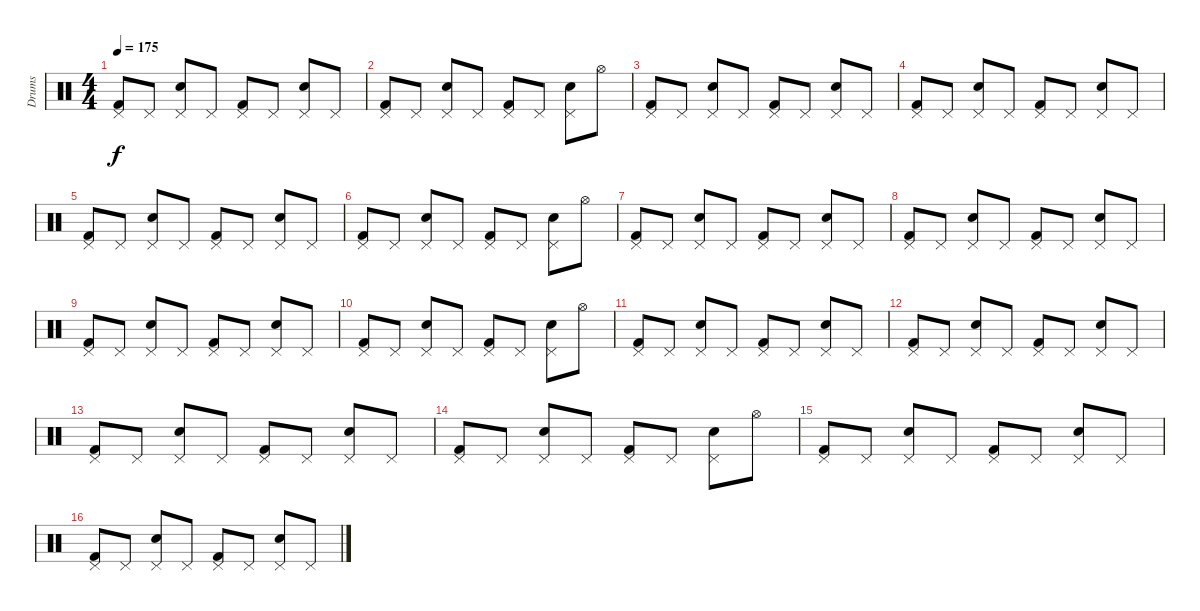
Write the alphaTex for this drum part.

\track ("Drums" "Drums") {instrument percussion}
\staff {score}
\articulation defaults
\ts (4 4)
\tempo 175
\clef neutral
\ks c
("Pedal Hi-Hat (hit)" "Kick (hit) 2").8{dy f} "Pedal Hi-Hat (hit)".8 ("Pedal Hi-Hat (hit)" "Snare (hit) 2").8 "Pedal Hi-Hat (hit)".8 ("Pedal Hi-Hat (hit)" "Kick (hit) 2").8 "Pedal Hi-Hat (hit)".8 ("Pedal Hi-Hat (hit)" "Snare (hit) 2").8 "Pedal Hi-Hat (hit)".8 |
("Pedal Hi-Hat (hit)" "Kick (hit) 2").8 "Pedal Hi-Hat (hit)".8 ("Pedal Hi-Hat (hit)" "Snare (hit) 2").8 "Pedal Hi-Hat (hit)".8 ("Pedal Hi-Hat (hit)" "Kick (hit) 2").8 "Pedal Hi-Hat (hit)".8 ("Pedal Hi-Hat (hit)" "Snare (hit) 2").8 "Hi-Hat (open)".8 |
("Pedal Hi-Hat (hit)" "Kick (hit) 2").8 "Pedal Hi-Hat (hit)".8 ("Pedal Hi-Hat (hit)" "Snare (hit) 2").8 "Pedal Hi-Hat (hit)".8 ("Pedal Hi-Hat (hit)" "Kick (hit) 2").8 "Pedal Hi-Hat (hit)".8 ("Pedal Hi-Hat (hit)" "Snare (hit) 2").8 "Pedal Hi-Hat (hit)".8 |
("Pedal Hi-Hat (hit)" "Kick (hit) 2").8 "Pedal Hi-Hat (hit)".8 ("Pedal Hi-Hat (hit)" "Snare (hit) 2").8 "Pedal Hi-Hat (hit)".8 ("Pedal Hi-Hat (hit)" "Kick (hit) 2").8 "Pedal Hi-Hat (hit)".8 ("Pedal Hi-Hat (hit)" "Snare (hit) 2").8 "Pedal Hi-Hat (hit)".8 |
("Pedal Hi-Hat (hit)" "Kick (hit) 2").8 "Pedal Hi-Hat (hit)".8 ("Pedal Hi-Hat (hit)" "Snare (hit) 2").8 "Pedal Hi-Hat (hit)".8 ("Pedal Hi-Hat (hit)" "Kick (hit) 2").8 "Pedal Hi-Hat (hit)".8 ("Pedal Hi-Hat (hit)" "Snare (hit) 2").8 "Pedal Hi-Hat (hit)".8 |
("Pedal Hi-Hat (hit)" "Kick (hit) 2").8 "Pedal Hi-Hat (hit)".8 ("Pedal Hi-Hat (hit)" "Snare (hit) 2").8 "Pedal Hi-Hat (hit)".8 ("Pedal Hi-Hat (hit)" "Kick (hit) 2").8 "Pedal Hi-Hat (hit)".8 ("Pedal Hi-Hat (hit)" "Snare (hit) 2").8 "Hi-Hat (open)".8 |
("Pedal Hi-Hat (hit)" "Kick (hit) 2").8 "Pedal Hi-Hat (hit)".8 ("Pedal Hi-Hat (hit)" "Snare (hit) 2").8 "Pedal Hi-Hat (hit)".8 ("Pedal Hi-Hat (hit)" "Kick (hit) 2").8 "Pedal Hi-Hat (hit)".8 ("Pedal Hi-Hat (hit)" "Snare (hit) 2").8 "Pedal Hi-Hat (hit)".8 |
("Pedal Hi-Hat (hit)" "Kick (hit) 2").8 "Pedal Hi-Hat (hit)".8 ("Pedal Hi-Hat (hit)" "Snare (hit) 2").8 "Pedal Hi-Hat (hit)".8 ("Pedal Hi-Hat (hit)" "Kick (hit) 2").8 "Pedal Hi-Hat (hit)".8 ("Pedal Hi-Hat (hit)" "Snare (hit) 2").8 "Pedal Hi-Hat (hit)".8 |
("Pedal Hi-Hat (hit)" "Kick (hit) 2").8 "Pedal Hi-Hat (hit)".8 ("Pedal Hi-Hat (hit)" "Snare (hit) 2").8 "Pedal Hi-Hat (hit)".8 ("Pedal Hi-Hat (hit)" "Kick (hit) 2").8 "Pedal Hi-Hat (hit)".8 ("Pedal Hi-Hat (hit)" "Snare (hit) 2").8 "Pedal Hi-Hat (hit)".8 |
("Pedal Hi-Hat (hit)" "Kick (hit) 2").8 "Pedal Hi-Hat (hit)".8 ("Pedal Hi-Hat (hit)" "Snare (hit) 2").8 "Pedal Hi-Hat (hit)".8 ("Pedal Hi-Hat (hit)" "Kick (hit) 2").8 "Pedal Hi-Hat (hit)".8 ("Pedal Hi-Hat (hit)" "Snare (hit) 2").8 "Hi-Hat (open)".8 |
("Pedal Hi-Hat (hit)" "Kick (hit) 2").8 "Pedal Hi-Hat (hit)".8 ("Pedal Hi-Hat (hit)" "Snare (hit) 2").8 "Pedal Hi-Hat (hit)".8 ("Pedal Hi-Hat (hit)" "Kick (hit) 2").8 "Pedal Hi-Hat (hit)".8 ("Pedal Hi-Hat (hit)" "Snare (hit) 2").8 "Pedal Hi-Hat (hit)".8 |
("Pedal Hi-Hat (hit)" "Kick (hit) 2").8 "Pedal Hi-Hat (hit)".8 ("Pedal Hi-Hat (hit)" "Snare (hit) 2").8 "Pedal Hi-Hat (hit)".8 ("Pedal Hi-Hat (hit)" "Kick (hit) 2").8 "Pedal Hi-Hat (hit)".8 ("Pedal Hi-Hat (hit)" "Snare (hit) 2").8 "Pedal Hi-Hat (hit)".8 |
("Pedal Hi-Hat (hit)" "Kick (hit) 2").8 "Pedal Hi-Hat (hit)".8 ("Pedal Hi-Hat (hit)" "Snare (hit) 2").8 "Pedal Hi-Hat (hit)".8 ("Pedal Hi-Hat (hit)" "Kick (hit) 2").8 "Pedal Hi-Hat (hit)".8 ("Pedal Hi-Hat (hit)" "Snare (hit) 2").8 "Pedal Hi-Hat (hit)".8 |
("Pedal Hi-Hat (hit)" "Kick (hit) 2").8 "Pedal Hi-Hat (hit)".8 ("Pedal Hi-Hat (hit)" "Snare (hit) 2").8 "Pedal Hi-Hat (hit)".8 ("Pedal Hi-Hat (hit)" "Kick (hit) 2").8 "Pedal Hi-Hat (hit)".8 ("Pedal Hi-Hat (hit)" "Snare (hit) 2").8 "Hi-Hat (open)".8 |
("Pedal Hi-Hat (hit)" "Kick (hit) 2").8 "Pedal Hi-Hat (hit)".8 ("Pedal Hi-Hat (hit)" "Snare (hit) 2").8 "Pedal Hi-Hat (hit)".8 ("Pedal Hi-Hat (hit)" "Kick (hit) 2").8 "Pedal Hi-Hat (hit)".8 ("Pedal Hi-Hat (hit)" "Snare (hit) 2").8 "Pedal Hi-Hat (hit)".8 |
("Pedal Hi-Hat (hit)" "Kick (hit) 2").8 "Pedal Hi-Hat (hit)".8 ("Pedal Hi-Hat (hit)" "Snare (hit) 2").8 "Pedal Hi-Hat (hit)".8 ("Pedal Hi-Hat (hit)" "Kick (hit) 2").8 "Pedal Hi-Hat (hit)".8 ("Pedal Hi-Hat (hit)" "Snare (hit) 2").8 "Pedal Hi-Hat (hit)".8
